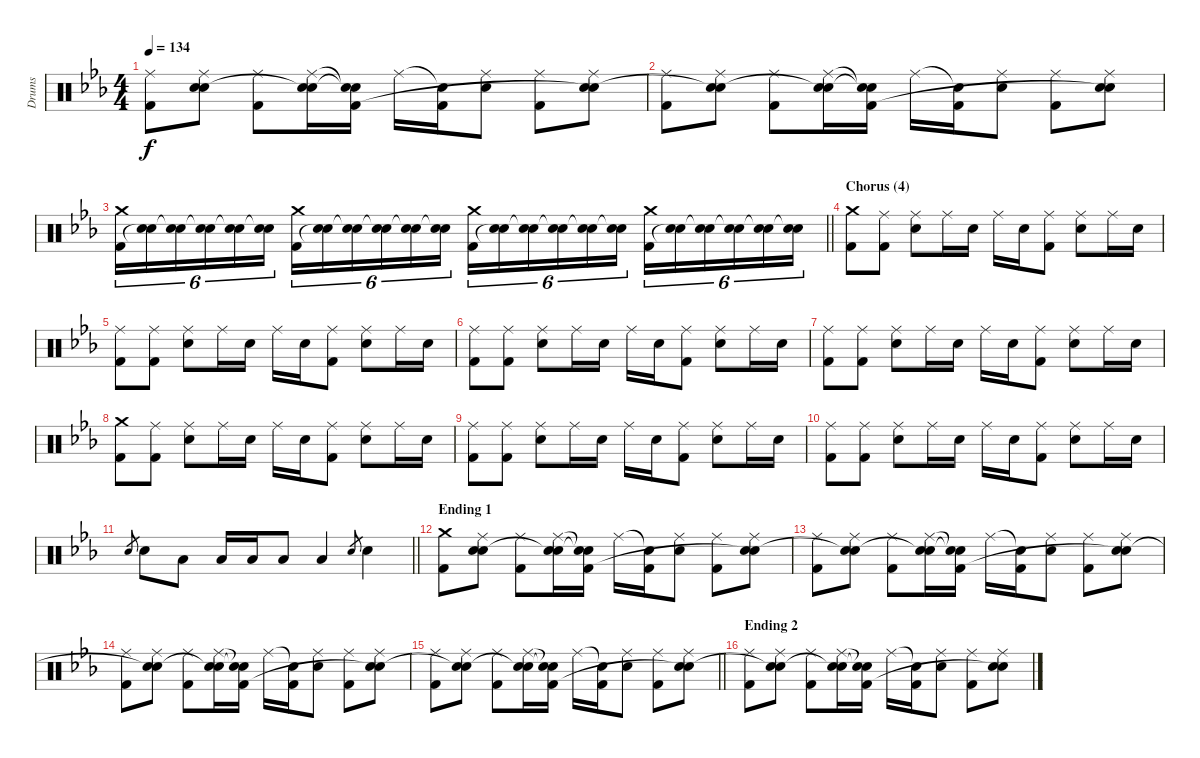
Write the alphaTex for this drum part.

\track ("Drums" "Drums") {instrument percussion}
\staff {score}
\articulation defaults
\ts (4 4)
\tempo 134
\clef neutral
\ks eb
("Ride (middle)" "Kick (hit) 2").8{dy f} ("Ride (middle)" "Electric Snare (hit)" "Snare (hit)"{t}).8 ("Ride (middle)" "Kick (hit) 2").8 ("Ride (middle)" "Electric Snare (hit)" "Snare (hit)"{t}).16 ("Snare (hit)"{t} "Snare (hit)"{t} "Kick (hit) 2").16 "Ride (middle)".16 ("Snare (hit)"{t} "Kick (hit) 2").16 ("Ride (middle)" "Electric Snare (hit)").8 ("Ride (middle)" "Kick (hit) 2").8 ("Ride (middle)" "Electric Snare (hit)" "Snare (hit)"{t}).8 |
("Ride (middle)" "Kick (hit) 2").8 ("Ride (middle)" "Electric Snare (hit)" "Snare (hit)"{t}).8 ("Ride (middle)" "Kick (hit) 2").8 ("Ride (middle)" "Electric Snare (hit)" "Snare (hit)"{t}).16 ("Snare (hit)"{t} "Snare (hit)"{t} "Kick (hit) 2").16 "Ride (middle)".16 ("Snare (hit)"{t} "Kick (hit) 2").16 ("Ride (middle)" "Electric Snare (hit)").8 ("Ride (middle)" "Kick (hit) 2").8 ("Ride (middle)" "Electric Snare (hit)" "Snare (hit)"{t}).8 |
\barLineRight lightlight
("Crash medium (hit)" "Kick (hit) 2").16{tu (6 4)} ("Electric Snare (hit)" "Snare (hit)"{t}).16{tu (6 4)} ("Electric Snare (hit)" "Snare (hit)"{t}).16{tu (6 4)} ("Electric Snare (hit)" "Snare (hit)"{t}).16{tu (6 4)} ("Electric Snare (hit)" "Snare (hit)"{t}).16{tu (6 4)} ("Electric Snare (hit)" "Snare (hit)"{t}).16{tu (6 4)} ("Crash medium (hit)" "Kick (hit) 2").16{tu (6 4)} ("Electric Snare (hit)" "Snare (hit)"{t}).16{tu (6 4)} ("Electric Snare (hit)" "Snare (hit)"{t}).16{tu (6 4)} ("Electric Snare (hit)" "Snare (hit)"{t}).16{tu (6 4)} ("Electric Snare (hit)" "Snare (hit)"{t}).16{tu (6 4)} ("Electric Snare (hit)" "Snare (hit)"{t}).16{tu (6 4)} ("Crash medium (hit)" "Kick (hit) 2").16{tu (6 4)} ("Electric Snare (hit)" "Snare (hit)"{t}).16{tu (6 4)} ("Electric Snare (hit)" "Snare (hit)"{t}).16{tu (6 4)} ("Electric Snare (hit)" "Snare (hit)"{t}).16{tu (6 4)} ("Electric Snare (hit)" "Snare (hit)"{t}).16{tu (6 4)} ("Electric Snare (hit)" "Snare (hit)"{t}).16{tu (6 4)} ("Crash medium (hit)" "Kick (hit) 2").16{tu (6 4)} ("Electric Snare (hit)" "Snare (hit)"{t}).16{tu (6 4)} ("Electric Snare (hit)" "Snare (hit)"{t}).16{tu (6 4)} ("Electric Snare (hit)" "Snare (hit)"{t}).16{tu (6 4)} ("Electric Snare (hit)" "Snare (hit)"{t}).16{tu (6 4)} ("Electric Snare (hit)" "Snare (hit)"{t}).16{tu (6 4)} |
\section ("" "Chorus (4)")
("Crash medium (hit)" "Kick (hit) 2").8 ("Ride (middle)" "Kick (hit) 2").8 ("Ride (middle)" "Electric Snare (hit)").8 "Ride (middle)".16 "Electric Snare (hit)".16 "Ride (middle)".16 "Electric Snare (hit)".16 ("Ride (middle)" "Kick (hit) 2").8 ("Ride (middle)" "Electric Snare (hit)").8 "Ride (middle)".16 "Electric Snare (hit)".16 |
("Ride (middle)" "Kick (hit) 2").8 ("Ride (middle)" "Kick (hit) 2").8 ("Ride (middle)" "Electric Snare (hit)").8 "Ride (middle)".16 "Electric Snare (hit)".16 "Ride (middle)".16 "Electric Snare (hit)".16 ("Ride (middle)" "Kick (hit) 2").8 ("Ride (middle)" "Electric Snare (hit)").8 "Ride (middle)".16 "Electric Snare (hit)".16 |
("Ride (middle)" "Kick (hit) 2").8 ("Ride (middle)" "Kick (hit) 2").8 ("Ride (middle)" "Electric Snare (hit)").8 "Ride (middle)".16 "Electric Snare (hit)".16 "Ride (middle)".16 "Electric Snare (hit)".16 ("Ride (middle)" "Kick (hit) 2").8 ("Ride (middle)" "Electric Snare (hit)").8 "Ride (middle)".16 "Electric Snare (hit)".16 |
("Ride (middle)" "Kick (hit) 2").8 ("Ride (middle)" "Kick (hit) 2").8 ("Ride (middle)" "Electric Snare (hit)").8 "Ride (middle)".16 "Electric Snare (hit)".16 "Ride (middle)".16 "Electric Snare (hit)".16 ("Ride (middle)" "Kick (hit) 2").8 ("Ride (middle)" "Electric Snare (hit)").8 "Ride (middle)".16 "Electric Snare (hit)".16 |
("Crash medium (hit)" "Kick (hit) 2").8 ("Ride (middle)" "Kick (hit) 2").8 ("Ride (middle)" "Electric Snare (hit)").8 "Ride (middle)".16 "Electric Snare (hit)".16 "Ride (middle)".16 "Electric Snare (hit)".16 ("Ride (middle)" "Kick (hit) 2").8 ("Ride (middle)" "Electric Snare (hit)").8 "Ride (middle)".16 "Electric Snare (hit)".16 |
("Ride (middle)" "Kick (hit) 2").8 ("Ride (middle)" "Kick (hit) 2").8 ("Ride (middle)" "Electric Snare (hit)").8 "Ride (middle)".16 "Electric Snare (hit)".16 "Ride (middle)".16 "Electric Snare (hit)".16 ("Ride (middle)" "Kick (hit) 2").8 ("Ride (middle)" "Electric Snare (hit)").8 "Ride (middle)".16 "Electric Snare (hit)".16 |
("Ride (middle)" "Kick (hit) 2").8 ("Ride (middle)" "Kick (hit) 2").8 ("Ride (middle)" "Electric Snare (hit)").8 "Ride (middle)".16 "Electric Snare (hit)".16 "Ride (middle)".16 "Electric Snare (hit)".16 ("Ride (middle)" "Kick (hit) 2").8 ("Ride (middle)" "Electric Snare (hit)").8 "Ride (middle)".16 "Electric Snare (hit)".16 |
\barLineRight lightlight "Electric Snare (hit)".8{gr} "Electric Snare (hit)".8 "Low Floor Tom (hit)".8 "Low Floor Tom (hit)".16 "Low Floor Tom (hit)".16 "Low Floor Tom (hit)".8 "Low Floor Tom (hit)".4 "Electric Snare (hit)".8{gr} "Electric Snare (hit)".4
|
\section ("" "Ending 1")
("Crash medium (hit)" "Kick (hit) 2").8 ("Ride (middle)" "Electric Snare (hit)" "Snare (hit)").8 ("Ride (middle)" "Kick (hit) 2").8 ("Ride (middle)" "Electric Snare (hit)" "Snare (hit)"{t}).16 ("Snare (hit)"{t} "Snare (hit)"{t} "Kick (hit) 2").16 "Ride (middle)".16 ("Snare (hit)"{t} "Kick (hit) 2").16 ("Ride (middle)" "Electric Snare (hit)").8 ("Ride (middle)" "Kick (hit) 2").8 ("Ride (middle)" "Electric Snare (hit)" "Snare (hit)"{t}).8 |
("Ride (middle)" "Kick (hit) 2").8 ("Ride (middle)" "Electric Snare (hit)" "Snare (hit)"{t}).8 ("Ride (middle)" "Kick (hit) 2").8 ("Ride (middle)" "Electric Snare (hit)" "Snare (hit)"{t}).16 ("Snare (hit)"{t} "Snare (hit)"{t} "Kick (hit) 2").16 "Ride (middle)".16 ("Snare (hit)"{t} "Kick (hit) 2").16 ("Ride (middle)" "Electric Snare (hit)").8 ("Ride (middle)" "Kick (hit) 2").8 ("Ride (middle)" "Electric Snare (hit)" "Snare (hit)"{t}).8 |
("Ride (middle)" "Kick (hit) 2").8 ("Ride (middle)" "Electric Snare (hit)" "Snare (hit)"{t}).8 ("Ride (middle)" "Kick (hit) 2").8 ("Ride (middle)" "Electric Snare (hit)" "Snare (hit)"{t}).16 ("Snare (hit)"{t} "Snare (hit)"{t} "Kick (hit) 2").16 "Ride (middle)".16 ("Snare (hit)"{t} "Kick (hit) 2").16 ("Ride (middle)" "Electric Snare (hit)").8 ("Ride (middle)" "Kick (hit) 2").8 ("Ride (middle)" "Electric Snare (hit)" "Snare (hit)"{t}).8 |
\barLineRight lightlight
("Ride (middle)" "Kick (hit) 2").8 ("Ride (middle)" "Electric Snare (hit)" "Snare (hit)"{t}).8 ("Ride (middle)" "Kick (hit) 2").8 ("Ride (middle)" "Electric Snare (hit)" "Snare (hit)"{t}).16 ("Snare (hit)"{t} "Snare (hit)"{t} "Kick (hit) 2").16 "Ride (middle)".16 ("Snare (hit)"{t} "Kick (hit) 2").16 ("Ride (middle)" "Electric Snare (hit)").8 ("Ride (middle)" "Kick (hit) 2").8 ("Ride (middle)" "Electric Snare (hit)" "Snare (hit)"{t}).8 |
\section ("" "Ending 2")
("Ride (middle)" "Kick (hit) 2").8 ("Ride (middle)" "Electric Snare (hit)" "Snare (hit)"{t}).8 ("Ride (middle)" "Kick (hit) 2").8 ("Ride (middle)" "Electric Snare (hit)" "Snare (hit)"{t}).16 ("Snare (hit)"{t} "Snare (hit)"{t} "Kick (hit) 2").16 "Ride (middle)".16 ("Snare (hit)"{t} "Kick (hit) 2").16 ("Ride (middle)" "Electric Snare (hit)").8 ("Ride (middle)" "Kick (hit) 2").8 ("Ride (middle)" "Electric Snare (hit)" "Snare (hit)"{t}).8
